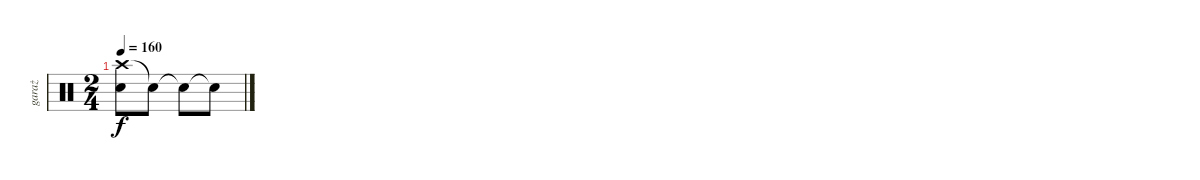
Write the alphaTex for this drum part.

\track ("garaż" "garaż") {instrument percussion}
\staff {score}
\articulation defaults
\ts (2 4)
\tempo 160
\clef neutral
\ks c
("Crash high (hit)" "Snare (hit) 2").8{dy f} "Snare (hit)"{t}.8 "Snare (hit)"{t}.8 "Snare (hit)"{t}.8
